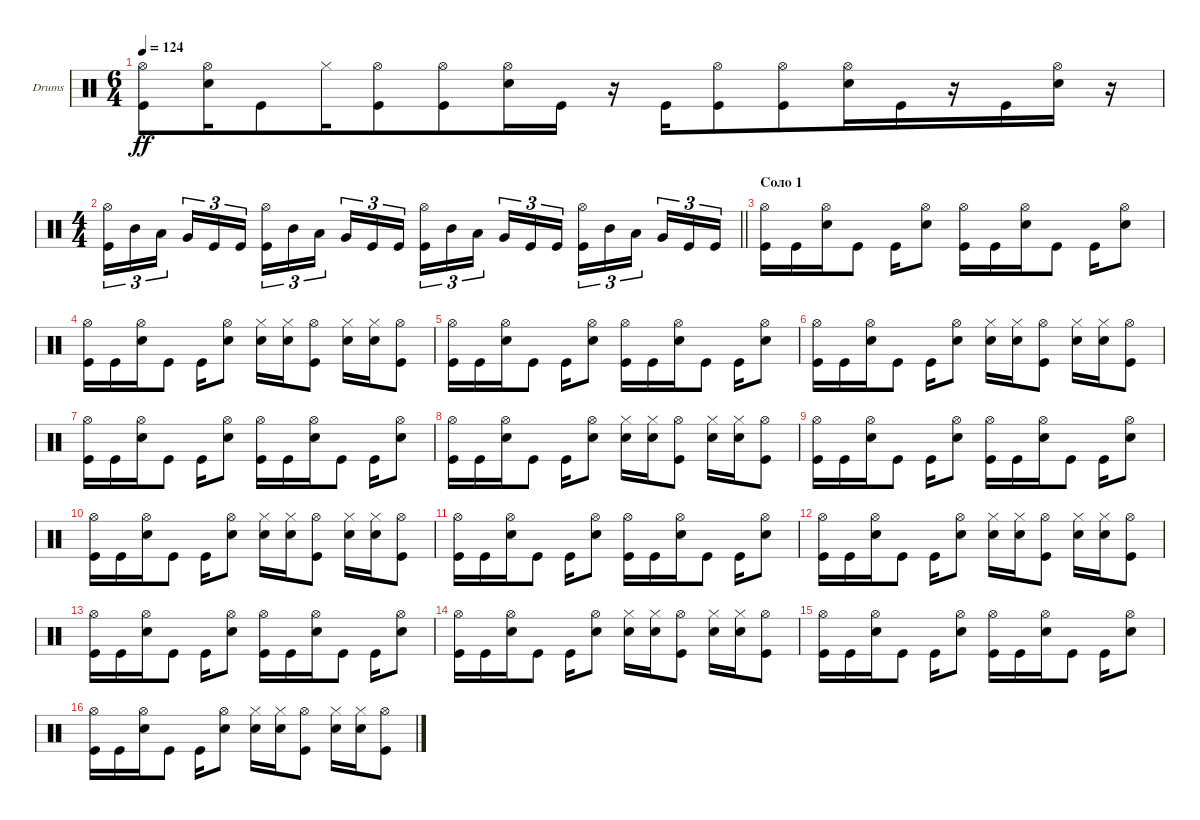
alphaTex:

\bracketExtendMode groupsimilarinstruments
\firstSystemTrackNameOrientation horizontal
\otherSystemsTrackNameOrientation horizontal
\track ("Барабаны" "Drums") {instrument percussion}
\staff {score}
\articulation defaults
\ts (6 4)
\beaming (8 6 6)
\tempo 124
\clef neutral
\ks c
("Hi-Hat (open)" "Kick (hit)").8{dy ff} ("Hi-Hat (open)" "Snare (hit) 2").16 "Kick (hit)".8 "Hi-Hat (closed)".16 ("Hi-Hat (open)" "Kick (hit)").8 ("Kick (hit)" "Hi-Hat (open)").8 ("Hi-Hat (open)" "Snare (hit) 2").16 "Kick (hit)".16 r.16 "Kick (hit)".16 ("Hi-Hat (open)" "Kick (hit)").8 ("Hi-Hat (open)" "Kick (hit)").8 ("Hi-Hat (open)" "Snare (hit) 2").16 "Kick (hit)".16 r.16 "Kick (hit)".16 ("Hi-Hat (open)" "Snare (hit) 2").16 r.16 |
\ts (4 4)
\beaming (8 2 2 2 2)
\barLineRight lightlight
("Kick (hit)" "Hi-Hat (open)").16{tu (3 2)} "Mid Tom (hit)".16{tu (3 2)} "Low Tom (hit)".16{tu (3 2)} "Very Low Tom (hit)".16{tu (3 2)} "Kick (hit)".16{tu (3 2)} "Kick (hit)".16{tu (3 2)} ("Kick (hit)" "Hi-Hat (open)").16{tu (3 2)} "Mid Tom (hit)".16{tu (3 2)} "Low Tom (hit)".16{tu (3 2)} "Very Low Tom (hit)".16{tu (3 2)} "Kick (hit)".16{tu (3 2)} "Kick (hit)".16{tu (3 2)} ("Hi-Hat (open)" "Kick (hit)").16{tu (3 2)} "Mid Tom (hit)".16{tu (3 2)} "Low Tom (hit)".16{tu (3 2)} "Very Low Tom (hit)".16{tu (3 2)} "Kick (hit)".16{tu (3 2)} "Kick (hit)".16{tu (3 2)} ("Hi-Hat (open)" "Kick (hit)").16{tu (3 2)} "Mid Tom (hit)".16{tu (3 2)} "Low Tom (hit)".16{tu (3 2)} "Very Low Tom (hit)".16{tu (3 2)} "Kick (hit)".16{tu (3 2)} "Kick (hit)".16{tu (3 2)} |
\section ("" "Соло 1")
("Hi-Hat (open)" "Kick (hit)").16 "Kick (hit)".16 ("Hi-Hat (open)" "Snare (hit) 2").16 "Kick (hit)".8 "Kick (hit)".16 ("Hi-Hat (open)" "Snare (hit) 2").8 ("Kick (hit)" "Hi-Hat (open)").16 "Kick (hit)".16 ("Hi-Hat (open)" "Snare (hit) 2").16 "Kick (hit)".8 "Kick (hit)".16 ("Hi-Hat (open)" "Snare (hit) 2").8 |
("Hi-Hat (open)" "Kick (hit)").16 "Kick (hit)".16 ("Hi-Hat (open)" "Snare (hit) 2").16 "Kick (hit)".8 "Kick (hit)".16 ("Hi-Hat (open)" "Snare (hit) 2").8 ("Hi-Hat (closed)" "Snare (hit) 2").16 ("Hi-Hat (closed)" "Snare (hit) 2").16 ("Hi-Hat (open)" "Kick (hit)").8 ("Hi-Hat (closed)" "Snare (hit) 2").16 ("Hi-Hat (closed)" "Snare (hit) 2").16 ("Hi-Hat (open)" "Kick (hit)").8 |
("Hi-Hat (open)" "Kick (hit)").16 "Kick (hit)".16 ("Hi-Hat (open)" "Snare (hit) 2").16 "Kick (hit)".8 "Kick (hit)".16 ("Hi-Hat (open)" "Snare (hit) 2").8 ("Kick (hit)" "Hi-Hat (open)").16 "Kick (hit)".16 ("Hi-Hat (open)" "Snare (hit) 2").16 "Kick (hit)".8 "Kick (hit)".16 ("Hi-Hat (open)" "Snare (hit) 2").8 |
("Hi-Hat (open)" "Kick (hit)").16 "Kick (hit)".16 ("Hi-Hat (open)" "Snare (hit) 2").16 "Kick (hit)".8 "Kick (hit)".16 ("Hi-Hat (open)" "Snare (hit) 2").8 ("Hi-Hat (closed)" "Snare (hit) 2").16 ("Hi-Hat (closed)" "Snare (hit) 2").16 ("Hi-Hat (open)" "Kick (hit)").8 ("Hi-Hat (closed)" "Snare (hit) 2").16 ("Hi-Hat (closed)" "Snare (hit) 2").16 ("Hi-Hat (open)" "Kick (hit)").8 |
("Hi-Hat (open)" "Kick (hit)").16 "Kick (hit)".16 ("Hi-Hat (open)" "Snare (hit) 2").16 "Kick (hit)".8 "Kick (hit)".16 ("Hi-Hat (open)" "Snare (hit) 2").8 ("Kick (hit)" "Hi-Hat (open)").16 "Kick (hit)".16 ("Hi-Hat (open)" "Snare (hit) 2").16 "Kick (hit)".8 "Kick (hit)".16 ("Hi-Hat (open)" "Snare (hit) 2").8 |
("Hi-Hat (open)" "Kick (hit)").16 "Kick (hit)".16 ("Hi-Hat (open)" "Snare (hit) 2").16 "Kick (hit)".8 "Kick (hit)".16 ("Hi-Hat (open)" "Snare (hit) 2").8 ("Hi-Hat (closed)" "Snare (hit) 2").16 ("Hi-Hat (closed)" "Snare (hit) 2").16 ("Hi-Hat (open)" "Kick (hit)").8 ("Hi-Hat (closed)" "Snare (hit) 2").16 ("Hi-Hat (closed)" "Snare (hit) 2").16 ("Hi-Hat (open)" "Kick (hit)").8 |
("Hi-Hat (open)" "Kick (hit)").16 "Kick (hit)".16 ("Hi-Hat (open)" "Snare (hit) 2").16 "Kick (hit)".8 "Kick (hit)".16 ("Hi-Hat (open)" "Snare (hit) 2").8 ("Kick (hit)" "Hi-Hat (open)").16 "Kick (hit)".16 ("Hi-Hat (open)" "Snare (hit) 2").16 "Kick (hit)".8 "Kick (hit)".16 ("Hi-Hat (open)" "Snare (hit) 2").8 |
("Hi-Hat (open)" "Kick (hit)").16 "Kick (hit)".16 ("Hi-Hat (open)" "Snare (hit) 2").16 "Kick (hit)".8 "Kick (hit)".16 ("Hi-Hat (open)" "Snare (hit) 2").8 ("Hi-Hat (closed)" "Snare (hit) 2").16 ("Hi-Hat (closed)" "Snare (hit) 2").16 ("Hi-Hat (open)" "Kick (hit)").8 ("Hi-Hat (closed)" "Snare (hit) 2").16 ("Hi-Hat (closed)" "Snare (hit) 2").16 ("Hi-Hat (open)" "Kick (hit)").8 |
("Hi-Hat (open)" "Kick (hit)").16 "Kick (hit)".16 ("Hi-Hat (open)" "Snare (hit) 2").16 "Kick (hit)".8 "Kick (hit)".16 ("Hi-Hat (open)" "Snare (hit) 2").8 ("Kick (hit)" "Hi-Hat (open)").16 "Kick (hit)".16 ("Hi-Hat (open)" "Snare (hit) 2").16 "Kick (hit)".8 "Kick (hit)".16 ("Hi-Hat (open)" "Snare (hit) 2").8 |
("Hi-Hat (open)" "Kick (hit)").16 "Kick (hit)".16 ("Hi-Hat (open)" "Snare (hit) 2").16 "Kick (hit)".8 "Kick (hit)".16 ("Hi-Hat (open)" "Snare (hit) 2").8 ("Hi-Hat (closed)" "Snare (hit) 2").16 ("Hi-Hat (closed)" "Snare (hit) 2").16 ("Hi-Hat (open)" "Kick (hit)").8 ("Hi-Hat (closed)" "Snare (hit) 2").16 ("Hi-Hat (closed)" "Snare (hit) 2").16 ("Hi-Hat (open)" "Kick (hit)").8 |
("Hi-Hat (open)" "Kick (hit)").16 "Kick (hit)".16 ("Hi-Hat (open)" "Snare (hit) 2").16 "Kick (hit)".8 "Kick (hit)".16 ("Hi-Hat (open)" "Snare (hit) 2").8 ("Kick (hit)" "Hi-Hat (open)").16 "Kick (hit)".16 ("Hi-Hat (open)" "Snare (hit) 2").16 "Kick (hit)".8 "Kick (hit)".16 ("Hi-Hat (open)" "Snare (hit) 2").8 |
("Hi-Hat (open)" "Kick (hit)").16 "Kick (hit)".16 ("Hi-Hat (open)" "Snare (hit) 2").16 "Kick (hit)".8 "Kick (hit)".16 ("Hi-Hat (open)" "Snare (hit) 2").8 ("Hi-Hat (closed)" "Snare (hit) 2").16 ("Hi-Hat (closed)" "Snare (hit) 2").16 ("Hi-Hat (open)" "Kick (hit)").8 ("Hi-Hat (closed)" "Snare (hit) 2").16 ("Hi-Hat (closed)" "Snare (hit) 2").16 ("Hi-Hat (open)" "Kick (hit)").8 |
("Hi-Hat (open)" "Kick (hit)").16 "Kick (hit)".16 ("Hi-Hat (open)" "Snare (hit) 2").16 "Kick (hit)".8 "Kick (hit)".16 ("Hi-Hat (open)" "Snare (hit) 2").8 ("Kick (hit)" "Hi-Hat (open)").16 "Kick (hit)".16 ("Hi-Hat (open)" "Snare (hit) 2").16 "Kick (hit)".8 "Kick (hit)".16 ("Hi-Hat (open)" "Snare (hit) 2").8 |
("Hi-Hat (open)" "Kick (hit)").16 "Kick (hit)".16 ("Hi-Hat (open)" "Snare (hit) 2").16 "Kick (hit)".8 "Kick (hit)".16 ("Hi-Hat (open)" "Snare (hit) 2").8 ("Hi-Hat (closed)" "Snare (hit) 2").16 ("Hi-Hat (closed)" "Snare (hit) 2").16 ("Hi-Hat (open)" "Kick (hit)").8 ("Hi-Hat (closed)" "Snare (hit) 2").16 ("Hi-Hat (closed)" "Snare (hit) 2").16 ("Hi-Hat (open)" "Kick (hit)").8
